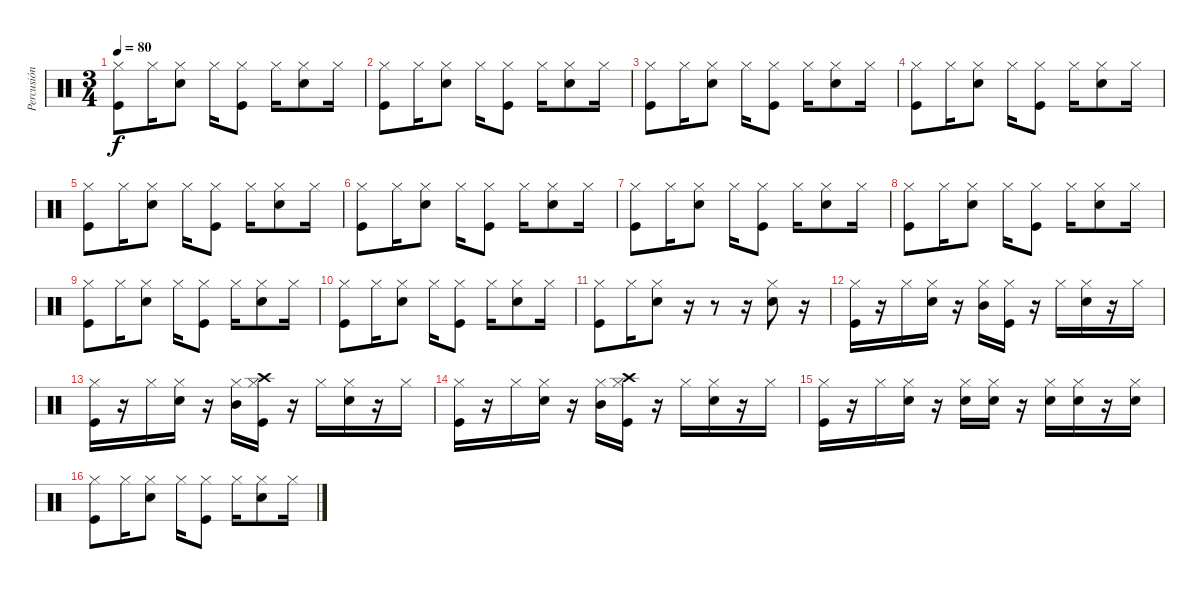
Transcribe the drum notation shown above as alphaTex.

\track ("Percusión" "Percusión") {instrument percussion}
\staff {score}
\articulation defaults
\ts (3 4)
\tempo 80
\clef neutral
\ks c
("Hi-Hat (closed)" "Kick (hit)").8{dy f} "Hi-Hat (closed)".16 ("Hi-Hat (closed)" "Snare (hit) 2").8 "Hi-Hat (closed)".16 ("Hi-Hat (closed)" "Kick (hit)").8 "Hi-Hat (closed)".16 ("Hi-Hat (closed)" "Snare (hit) 2").8 "Hi-Hat (closed)".16 |
("Hi-Hat (closed)" "Kick (hit)").8 "Hi-Hat (closed)".16 ("Hi-Hat (closed)" "Snare (hit) 2").8 "Hi-Hat (closed)".16 ("Hi-Hat (closed)" "Kick (hit)").8 "Hi-Hat (closed)".16 ("Hi-Hat (closed)" "Snare (hit) 2").8 "Hi-Hat (closed)".16 |
("Hi-Hat (closed)" "Kick (hit)").8 "Hi-Hat (closed)".16 ("Hi-Hat (closed)" "Snare (hit) 2").8 "Hi-Hat (closed)".16 ("Hi-Hat (closed)" "Kick (hit)").8 "Hi-Hat (closed)".16 ("Hi-Hat (closed)" "Snare (hit) 2").8 "Hi-Hat (closed)".16 |
("Hi-Hat (closed)" "Kick (hit)").8 "Hi-Hat (closed)".16 ("Hi-Hat (closed)" "Snare (hit) 2").8 "Hi-Hat (closed)".16 ("Hi-Hat (closed)" "Kick (hit)").8 "Hi-Hat (closed)".16 ("Hi-Hat (closed)" "Snare (hit) 2").8 "Hi-Hat (closed)".16 |
("Hi-Hat (closed)" "Kick (hit)").8 "Hi-Hat (closed)".16 ("Hi-Hat (closed)" "Snare (hit) 2").8 "Hi-Hat (closed)".16 ("Hi-Hat (closed)" "Kick (hit)").8 "Hi-Hat (closed)".16 ("Hi-Hat (closed)" "Snare (hit) 2").8 "Hi-Hat (closed)".16 |
("Hi-Hat (closed)" "Kick (hit)").8 "Hi-Hat (closed)".16 ("Hi-Hat (closed)" "Snare (hit) 2").8 "Hi-Hat (closed)".16 ("Hi-Hat (closed)" "Kick (hit)").8 "Hi-Hat (closed)".16 ("Hi-Hat (closed)" "Snare (hit) 2").8 "Hi-Hat (closed)".16 |
("Hi-Hat (closed)" "Kick (hit)").8 "Hi-Hat (closed)".16 ("Hi-Hat (closed)" "Snare (hit) 2").8 "Hi-Hat (closed)".16 ("Hi-Hat (closed)" "Kick (hit)").8 "Hi-Hat (closed)".16 ("Hi-Hat (closed)" "Snare (hit) 2").8 "Hi-Hat (closed)".16 |
("Hi-Hat (closed)" "Kick (hit)").8 "Hi-Hat (closed)".16 ("Hi-Hat (closed)" "Snare (hit) 2").8 "Hi-Hat (closed)".16 ("Hi-Hat (closed)" "Kick (hit)").8 "Hi-Hat (closed)".16 ("Hi-Hat (closed)" "Snare (hit) 2").8 "Hi-Hat (closed)".16 |
("Hi-Hat (closed)" "Kick (hit)").8 "Hi-Hat (closed)".16 ("Hi-Hat (closed)" "Snare (hit) 2").8 "Hi-Hat (closed)".16 ("Hi-Hat (closed)" "Kick (hit)").8 "Hi-Hat (closed)".16 ("Hi-Hat (closed)" "Snare (hit) 2").8 "Hi-Hat (closed)".16 |
("Hi-Hat (closed)" "Kick (hit)").8 "Hi-Hat (closed)".16 ("Hi-Hat (closed)" "Snare (hit) 2").8 "Hi-Hat (closed)".16 ("Hi-Hat (closed)" "Kick (hit)").8 "Hi-Hat (closed)".16 ("Hi-Hat (closed)" "Snare (hit) 2").8 "Hi-Hat (closed)".16 |
("Hi-Hat (closed)" "Kick (hit)").8 "Hi-Hat (closed)".16 ("Hi-Hat (closed)" "Snare (hit) 2").8 r.16 r.8 r.16 ("Hi-Hat (closed)" "Snare (hit) 2").8 r.16 |
("Hi-Hat (closed)" "Kick (hit)").16 r.16 "Hi-Hat (closed)".16 ("Hi-Hat (closed)" "Snare (hit) 2").16 r.16 ("Hi-Hat (closed)" "Mid Tom (hit)").16 ("Hi-Hat (closed)" "Kick (hit)").16 r.16 "Hi-Hat (closed)".16 ("Hi-Hat (closed)" "Snare (hit) 2").16 r.16 "Hi-Hat (closed)".16 |
("Hi-Hat (closed)" "Kick (hit)").16 r.16 "Hi-Hat (closed)".16 ("Hi-Hat (closed)" "Snare (hit) 2").16 r.16 ("Hi-Hat (closed)" "Mid Tom (hit)").16 ("Hi-Hat (closed)" "Kick (hit)" "Crash high (hit)").16 r.16 "Hi-Hat (closed)".16 ("Hi-Hat (closed)" "Snare (hit) 2").16 r.16 "Hi-Hat (closed)".16 |
("Hi-Hat (closed)" "Kick (hit)").16 r.16 "Hi-Hat (closed)".16 ("Hi-Hat (closed)" "Snare (hit) 2").16 r.16 ("Hi-Hat (closed)" "Mid Tom (hit)").16 ("Hi-Hat (closed)" "Kick (hit)" "Crash high (hit)").16 r.16 "Hi-Hat (closed)".16 ("Hi-Hat (closed)" "Snare (hit) 2").16 r.16 "Hi-Hat (closed)".16 |
("Hi-Hat (closed)" "Kick (hit)").16 r.16 "Hi-Hat (closed)".16 ("Hi-Hat (closed)" "Snare (hit) 2").16 r.16 ("Hi-Hat (closed)" "Snare (hit) 2").16 ("Hi-Hat (closed)" "Snare (hit) 2").16 r.16 ("Hi-Hat (closed)" "Snare (hit) 2").16 ("Hi-Hat (closed)" "Snare (hit) 2").16 r.16 ("Hi-Hat (closed)" "Snare (hit) 2").16 |
("Hi-Hat (closed)" "Kick (hit)").8 "Hi-Hat (closed)".16 ("Hi-Hat (closed)" "Snare (hit) 2").8 "Hi-Hat (closed)".16 ("Hi-Hat (closed)" "Kick (hit)").8 "Hi-Hat (closed)".16 ("Hi-Hat (closed)" "Snare (hit) 2").8 "Hi-Hat (closed)".16
